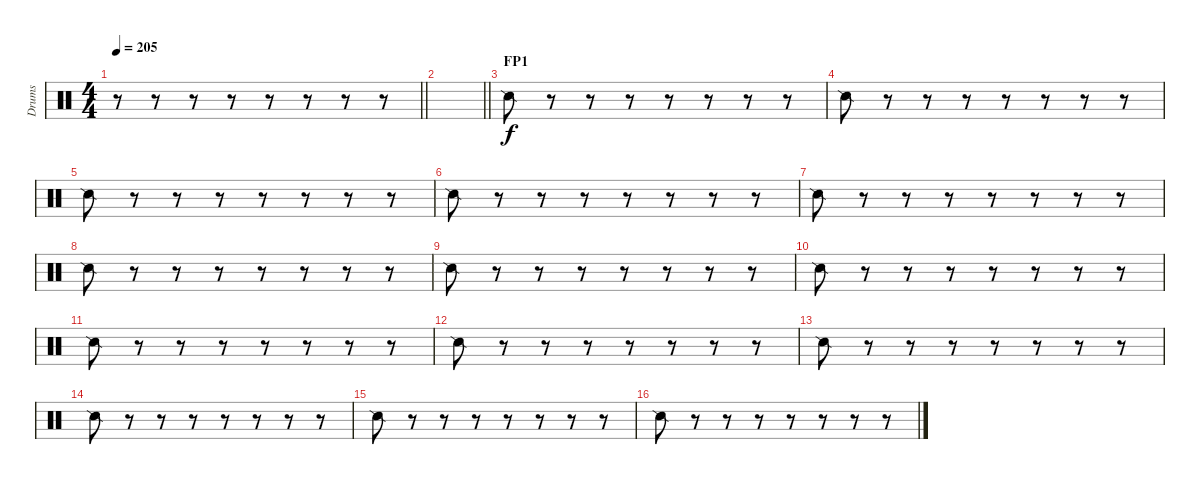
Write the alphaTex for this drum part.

\track ("Drums" "Drums") {instrument percussion}
\staff {score}
\articulation defaults
\ts (4 4)
\tempo 205
\clef neutral
\barLineRight lightlight
\ks c
r.8{dy f} r.8 r.8 r.8 r.8 r.8 r.8 r.8 |
\barLineRight lightlight
|
\section ("" "FP1")
"Snare (side stick) 2".8 r.8 r.8 r.8 r.8 r.8 r.8 r.8 |
"Snare (side stick) 2".8 r.8 r.8 r.8 r.8 r.8 r.8 r.8 |
"Snare (side stick) 2".8 r.8 r.8 r.8 r.8 r.8 r.8 r.8 |
"Snare (side stick) 2".8 r.8 r.8 r.8 r.8 r.8 r.8 r.8 |
"Snare (side stick) 2".8 r.8 r.8 r.8 r.8 r.8 r.8 r.8 |
"Snare (side stick) 2".8 r.8 r.8 r.8 r.8 r.8 r.8 r.8 |
"Snare (side stick) 2".8 r.8 r.8 r.8 r.8 r.8 r.8 r.8 |
"Snare (side stick) 2".8 r.8 r.8 r.8 r.8 r.8 r.8 r.8 |
"Snare (side stick) 2".8 r.8 r.8 r.8 r.8 r.8 r.8 r.8 |
"Snare (side stick) 2".8 r.8 r.8 r.8 r.8 r.8 r.8 r.8 |
"Snare (side stick) 2".8 r.8 r.8 r.8 r.8 r.8 r.8 r.8 |
"Snare (side stick) 2".8 r.8 r.8 r.8 r.8 r.8 r.8 r.8 |
"Snare (side stick) 2".8 r.8 r.8 r.8 r.8 r.8 r.8 r.8 |
"Snare (side stick) 2".8 r.8 r.8 r.8 r.8 r.8 r.8 r.8
